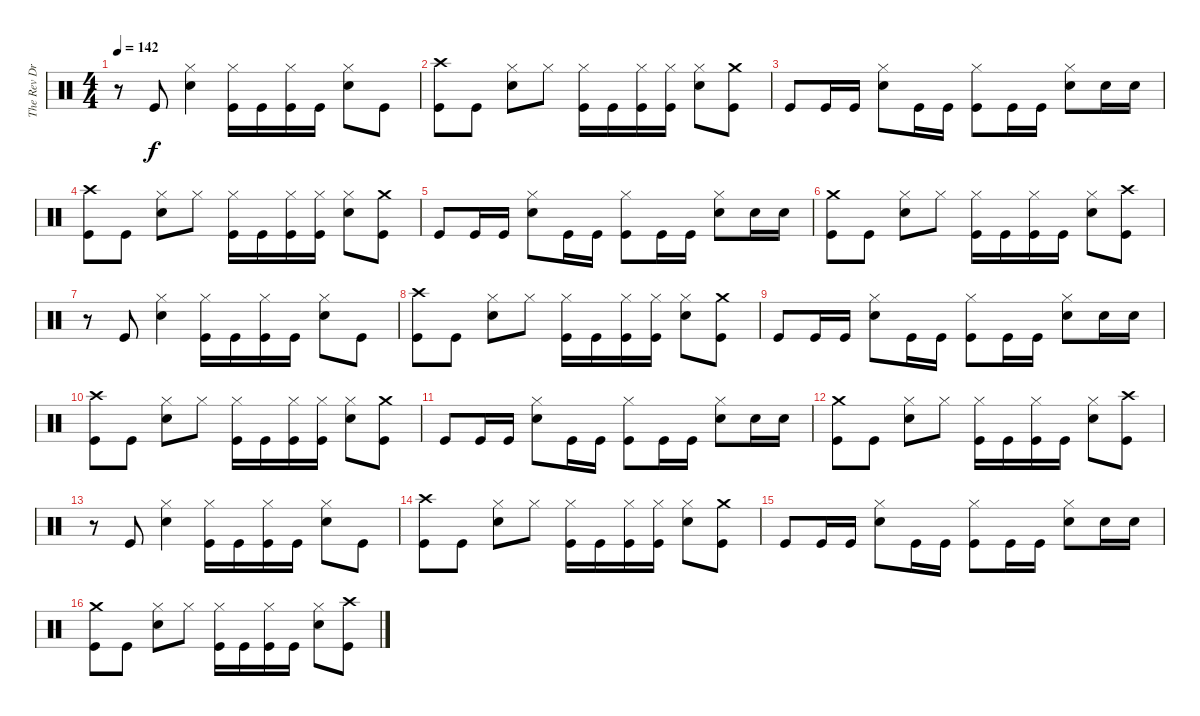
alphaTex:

\track ("The Rev Drums" "The Rev Dr") {instrument percussion}
\staff {score}
\articulation defaults
\ts (4 4)
\tempo 142
\clef neutral
\ks c
r.8{dy f} "Kick (hit)".8 ("Hi-Hat (closed)" "Electric Snare (hit)").4 ("Hi-Hat (closed)" "Kick (hit)").16 "Kick (hit)".16 ("Hi-Hat (closed)" "Kick (hit)").16 "Kick (hit)".16 ("Hi-Hat (closed)" "Electric Snare (hit)").8 "Kick (hit)".8 |
("Crash high (hit)" "Kick (hit)").8 "Kick (hit)".8 ("Hi-Hat (closed)" "Electric Snare (hit)").8 "Hi-Hat (closed)".8 ("Hi-Hat (closed)" "Kick (hit)").16 "Kick (hit)".16 ("Hi-Hat (closed)" "Kick (hit)").16 ("Hi-Hat (closed)" "Kick (hit)").16 ("Hi-Hat (closed)" "Electric Snare (hit)").8 ("Crash medium (hit)" "Kick (hit)").8 |
"Kick (hit)".8 "Kick (hit)".16 "Kick (hit)".16 ("Hi-Hat (closed)" "Electric Snare (hit)").8 "Kick (hit)".16 "Kick (hit)".16 ("Hi-Hat (closed)" "Kick (hit)").8 "Kick (hit)".16 "Kick (hit)".16 ("Hi-Hat (closed)" "Electric Snare (hit)").8 "Electric Snare (hit)".16 "Electric Snare (hit)".16 |
("Crash high (hit)" "Kick (hit)").8 "Kick (hit)".8 ("Hi-Hat (closed)" "Electric Snare (hit)").8 "Hi-Hat (closed)".8 ("Hi-Hat (closed)" "Kick (hit)").16 "Kick (hit)".16 ("Hi-Hat (closed)" "Kick (hit)").16 ("Hi-Hat (closed)" "Kick (hit)").16 ("Hi-Hat (closed)" "Electric Snare (hit)").8 ("Crash medium (hit)" "Kick (hit)").8 |
"Kick (hit)".8 "Kick (hit)".16 "Kick (hit)".16 ("Hi-Hat (closed)" "Electric Snare (hit)").8 "Kick (hit)".16 "Kick (hit)".16 ("Hi-Hat (closed)" "Kick (hit)").8 "Kick (hit)".16 "Kick (hit)".16 ("Hi-Hat (closed)" "Electric Snare (hit)").8 "Electric Snare (hit)".16 "Electric Snare (hit)".16 |
("Crash medium (hit)" "Kick (hit)").8 "Kick (hit)".8 ("Hi-Hat (closed)" "Electric Snare (hit)").8 "Hi-Hat (closed)".8 ("Hi-Hat (closed)" "Kick (hit)").16 "Kick (hit)".16 ("Hi-Hat (closed)" "Kick (hit)").16 "Kick (hit)".16 ("Hi-Hat (closed)" "Electric Snare (hit)").8 ("Crash high (hit)" "Kick (hit)").8 |
r.8 "Kick (hit)".8 ("Hi-Hat (closed)" "Electric Snare (hit)").4 ("Hi-Hat (closed)" "Kick (hit)").16 "Kick (hit)".16 ("Hi-Hat (closed)" "Kick (hit)").16 "Kick (hit)".16 ("Hi-Hat (closed)" "Electric Snare (hit)").8 "Kick (hit)".8 |
("Crash high (hit)" "Kick (hit)").8 "Kick (hit)".8 ("Hi-Hat (closed)" "Electric Snare (hit)").8 "Hi-Hat (closed)".8 ("Hi-Hat (closed)" "Kick (hit)").16 "Kick (hit)".16 ("Hi-Hat (closed)" "Kick (hit)").16 ("Hi-Hat (closed)" "Kick (hit)").16 ("Hi-Hat (closed)" "Electric Snare (hit)").8 ("Crash medium (hit)" "Kick (hit)").8 |
"Kick (hit)".8 "Kick (hit)".16 "Kick (hit)".16 ("Hi-Hat (closed)" "Electric Snare (hit)").8 "Kick (hit)".16 "Kick (hit)".16 ("Hi-Hat (closed)" "Kick (hit)").8 "Kick (hit)".16 "Kick (hit)".16 ("Hi-Hat (closed)" "Electric Snare (hit)").8 "Electric Snare (hit)".16 "Electric Snare (hit)".16 |
("Crash high (hit)" "Kick (hit)").8 "Kick (hit)".8 ("Hi-Hat (closed)" "Electric Snare (hit)").8 "Hi-Hat (closed)".8 ("Hi-Hat (closed)" "Kick (hit)").16 "Kick (hit)".16 ("Hi-Hat (closed)" "Kick (hit)").16 ("Hi-Hat (closed)" "Kick (hit)").16 ("Hi-Hat (closed)" "Electric Snare (hit)").8 ("Crash medium (hit)" "Kick (hit)").8 |
"Kick (hit)".8 "Kick (hit)".16 "Kick (hit)".16 ("Hi-Hat (closed)" "Electric Snare (hit)").8 "Kick (hit)".16 "Kick (hit)".16 ("Hi-Hat (closed)" "Kick (hit)").8 "Kick (hit)".16 "Kick (hit)".16 ("Hi-Hat (closed)" "Electric Snare (hit)").8 "Electric Snare (hit)".16 "Electric Snare (hit)".16 |
("Crash medium (hit)" "Kick (hit)").8 "Kick (hit)".8 ("Hi-Hat (closed)" "Electric Snare (hit)").8 "Hi-Hat (closed)".8 ("Hi-Hat (closed)" "Kick (hit)").16 "Kick (hit)".16 ("Hi-Hat (closed)" "Kick (hit)").16 "Kick (hit)".16 ("Hi-Hat (closed)" "Electric Snare (hit)").8 ("Crash high (hit)" "Kick (hit)").8 |
r.8 "Kick (hit)".8 ("Hi-Hat (closed)" "Electric Snare (hit)").4 ("Hi-Hat (closed)" "Kick (hit)").16 "Kick (hit)".16 ("Hi-Hat (closed)" "Kick (hit)").16 "Kick (hit)".16 ("Hi-Hat (closed)" "Electric Snare (hit)").8 "Kick (hit)".8 |
("Crash high (hit)" "Kick (hit)").8 "Kick (hit)".8 ("Hi-Hat (closed)" "Electric Snare (hit)").8 "Hi-Hat (closed)".8 ("Hi-Hat (closed)" "Kick (hit)").16 "Kick (hit)".16 ("Hi-Hat (closed)" "Kick (hit)").16 ("Hi-Hat (closed)" "Kick (hit)").16 ("Hi-Hat (closed)" "Electric Snare (hit)").8 ("Crash medium (hit)" "Kick (hit)").8 |
"Kick (hit)".8 "Kick (hit)".16 "Kick (hit)".16 ("Hi-Hat (closed)" "Electric Snare (hit)").8 "Kick (hit)".16 "Kick (hit)".16 ("Hi-Hat (closed)" "Kick (hit)").8 "Kick (hit)".16 "Kick (hit)".16 ("Hi-Hat (closed)" "Electric Snare (hit)").8 "Electric Snare (hit)".16 "Electric Snare (hit)".16 |
("Crash medium (hit)" "Kick (hit)").8 "Kick (hit)".8 ("Hi-Hat (closed)" "Electric Snare (hit)").8 "Hi-Hat (closed)".8 ("Hi-Hat (closed)" "Kick (hit)").16 "Kick (hit)".16 ("Hi-Hat (closed)" "Kick (hit)").16 "Kick (hit)".16 ("Hi-Hat (closed)" "Electric Snare (hit)").8 ("Crash high (hit)" "Kick (hit)").8
